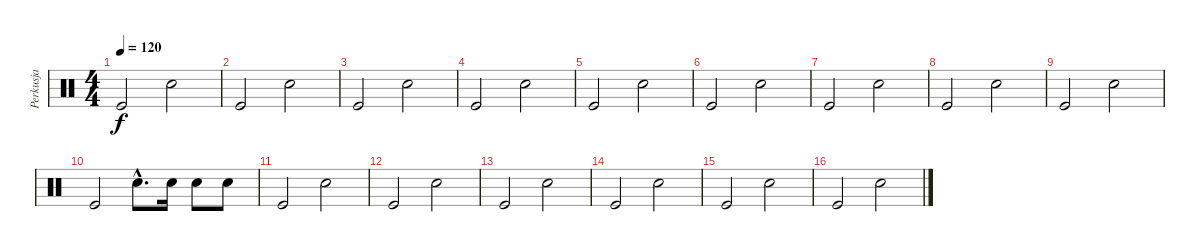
\track ("Perkusja" "Perkusja") {instrument percussion}
\staff {score}
\articulation defaults
\ts (4 4)
\tempo 120
\clef neutral
\ks c "Kick (hit)".2{dy f} "Electric Snare (hit)".2
|
"Kick (hit)".2 "Electric Snare (hit)".2 |
"Kick (hit)".2 "Electric Snare (hit)".2 |
"Kick (hit)".2 "Electric Snare (hit)".2 |
"Kick (hit)".2 "Electric Snare (hit)".2 |
"Kick (hit)".2 "Electric Snare (hit)".2 |
"Kick (hit)".2 "Electric Snare (hit)".2 |
"Kick (hit)".2 "Electric Snare (hit)".2 |
"Kick (hit)".2 "Electric Snare (hit)".2 |
"Kick (hit)".2 "Electric Snare (hit)"{hac}.8{d} "Electric Snare (hit)".16 "Electric Snare (hit)".8 "Electric Snare (hit)".8 |
"Kick (hit)".2 "Electric Snare (hit)".2 |
"Kick (hit)".2 "Electric Snare (hit)".2 |
"Kick (hit)".2 "Electric Snare (hit)".2 |
"Kick (hit)".2 "Electric Snare (hit)".2 |
"Kick (hit)".2 "Electric Snare (hit)".2 |
"Kick (hit)".2 "Electric Snare (hit)".2
